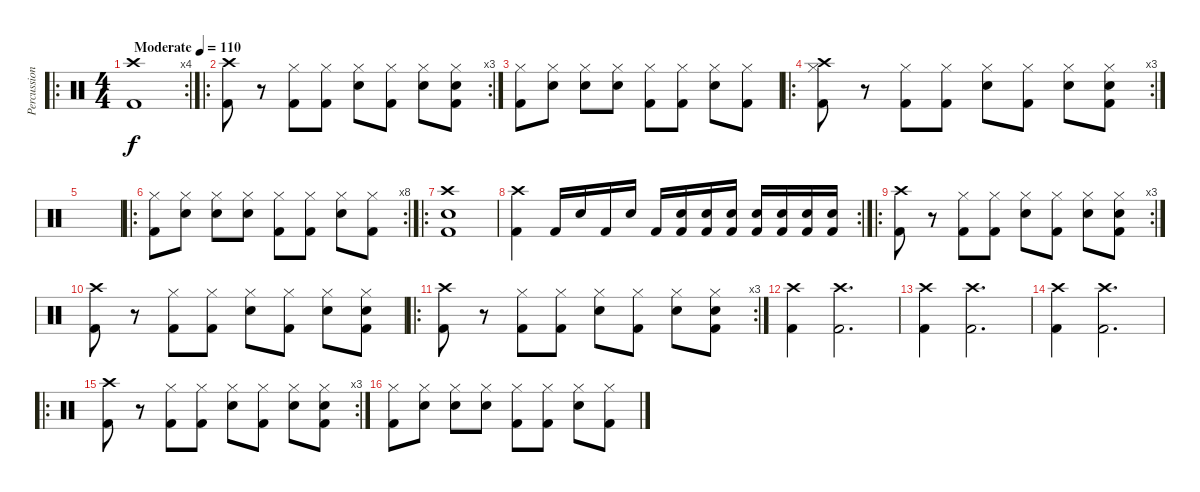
\track ("Percussion" "Percussion") {instrument percussion}
\staff {score}
\articulation defaults
\ro
\rc 4
\ts (4 4)
\tempo (110 "Moderate")
\clef neutral
\ks c
("Crash high (hit)" "Kick (hit) 2").1{dy f} |
\ro
\rc 3
("Crash high (hit)" "Kick (hit) 2").8 r.8 ("Hi-Hat (closed)" "Kick (hit) 2").8 ("Hi-Hat (closed)" "Kick (hit) 2").8 ("Hi-Hat (closed)" "Electric Snare (hit)").8 ("Hi-Hat (closed)" "Kick (hit) 2").8 ("Hi-Hat (closed)" "Electric Snare (hit)").8 ("Hi-Hat (closed)" "Electric Snare (hit)" "Kick (hit) 2").8 |
("Hi-Hat (closed)" "Kick (hit) 2").8 ("Hi-Hat (closed)" "Electric Snare (hit)").8 ("Hi-Hat (closed)" "Electric Snare (hit)").8 ("Hi-Hat (closed)" "Electric Snare (hit)").8 ("Hi-Hat (closed)" "Kick (hit) 2").8 ("Hi-Hat (closed)" "Kick (hit) 2").8 ("Hi-Hat (closed)" "Electric Snare (hit)").8 ("Hi-Hat (closed)" "Kick (hit) 2").8 |
\ro
\rc 3
("Hi-Hat (closed)" "Crash high (hit)" "Kick (hit) 2").8 r.8 ("Hi-Hat (closed)" "Kick (hit) 2").8 ("Hi-Hat (closed)" "Kick (hit) 2").8 ("Hi-Hat (closed)" "Electric Snare (hit)").8 ("Hi-Hat (closed)" "Kick (hit) 2").8 ("Hi-Hat (closed)" "Electric Snare (hit)").8 ("Hi-Hat (closed)" "Electric Snare (hit)" "Kick (hit) 2").8 |
|
\ro
\rc 8
("Hi-Hat (closed)" "Kick (hit) 2").8 ("Hi-Hat (closed)" "Electric Snare (hit)").8 ("Hi-Hat (closed)" "Electric Snare (hit)").8 ("Hi-Hat (closed)" "Electric Snare (hit)").8 ("Hi-Hat (closed)" "Kick (hit) 2").8 ("Hi-Hat (closed)" "Kick (hit) 2").8 ("Hi-Hat (closed)" "Electric Snare (hit)").8 ("Hi-Hat (closed)" "Kick (hit) 2").8 |
\ro
("Crash high (hit)" "Electric Snare (hit)" "Kick (hit) 2").1 |
\rc 2
("Crash high (hit)" "Kick (hit) 2").4 "Kick (hit) 2".16 "Electric Snare (hit)".16 "Kick (hit) 2".16 "Electric Snare (hit)".16 "Kick (hit) 2".16 ("Electric Snare (hit)" "Kick (hit) 2").16 ("Electric Snare (hit)" "Kick (hit) 2").16 ("Electric Snare (hit)" "Kick (hit) 2").16 ("Electric Snare (hit)" "Kick (hit) 2").16 ("Electric Snare (hit)" "Kick (hit) 2").16 ("Electric Snare (hit)" "Kick (hit) 2").16 ("Electric Snare (hit)" "Kick (hit) 2").16 |
\ro
\rc 3
("Crash high (hit)" "Kick (hit) 2").8 r.8 ("Hi-Hat (closed)" "Kick (hit) 2").8 ("Hi-Hat (closed)" "Kick (hit) 2").8 ("Hi-Hat (closed)" "Electric Snare (hit)").8 ("Hi-Hat (closed)" "Kick (hit) 2").8 ("Hi-Hat (closed)" "Electric Snare (hit)").8 ("Hi-Hat (closed)" "Electric Snare (hit)" "Kick (hit) 2").8 |
("Crash high (hit)" "Kick (hit) 2").8 r.8 ("Hi-Hat (closed)" "Kick (hit) 2").8 ("Hi-Hat (closed)" "Kick (hit) 2").8 ("Hi-Hat (closed)" "Electric Snare (hit)").8 ("Hi-Hat (closed)" "Kick (hit) 2").8 ("Hi-Hat (closed)" "Electric Snare (hit)").8 ("Hi-Hat (closed)" "Electric Snare (hit)" "Kick (hit) 2").8 |
\ro
\rc 3
("Crash high (hit)" "Kick (hit) 2").8 r.8 ("Hi-Hat (closed)" "Kick (hit) 2").8 ("Hi-Hat (closed)" "Kick (hit) 2").8 ("Hi-Hat (closed)" "Electric Snare (hit)").8 ("Hi-Hat (closed)" "Kick (hit) 2").8 ("Hi-Hat (closed)" "Electric Snare (hit)").8 ("Hi-Hat (closed)" "Electric Snare (hit)" "Kick (hit) 2").8 |
("Crash high (hit)" "Kick (hit) 2").4 ("Crash high (hit)" "Kick (hit) 2").2{d} |
("Crash high (hit)" "Kick (hit) 2").4 ("Crash high (hit)" "Kick (hit) 2").2{d} |
("Crash high (hit)" "Kick (hit) 2").4 ("Crash high (hit)" "Kick (hit) 2").2{d} |
\ro
\rc 3
("Crash high (hit)" "Kick (hit) 2").8 r.8 ("Hi-Hat (closed)" "Kick (hit) 2").8 ("Hi-Hat (closed)" "Kick (hit) 2").8 ("Hi-Hat (closed)" "Electric Snare (hit)").8 ("Hi-Hat (closed)" "Kick (hit) 2").8 ("Hi-Hat (closed)" "Electric Snare (hit)").8 ("Hi-Hat (closed)" "Electric Snare (hit)" "Kick (hit) 2").8 |
("Hi-Hat (closed)" "Kick (hit) 2").8 ("Hi-Hat (closed)" "Electric Snare (hit)").8 ("Hi-Hat (closed)" "Electric Snare (hit)").8 ("Hi-Hat (closed)" "Electric Snare (hit)").8 ("Hi-Hat (closed)" "Kick (hit) 2").8 ("Hi-Hat (closed)" "Kick (hit) 2").8 ("Hi-Hat (closed)" "Electric Snare (hit)").8 ("Hi-Hat (closed)" "Kick (hit) 2").8
